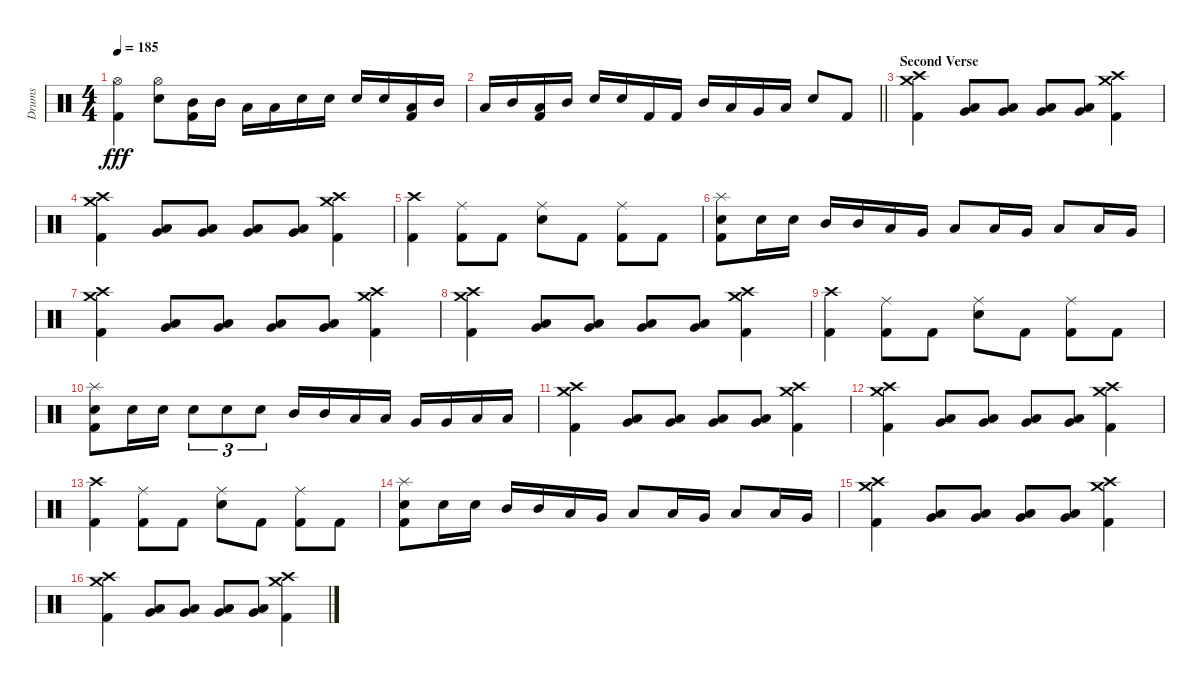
\track ("Drums" "Drums") {instrument percussion}
\staff {score}
\articulation defaults
\ts (4 4)
\tempo 185
\clef neutral
\ks c
("Hi-Hat (open)" "Kick (hit) 2").4{dy fff} ("Hi-Hat (open)" "Electric Snare (hit)").8 ("Mid Tom (hit)" "Kick (hit) 2").16 "Mid Tom (hit)".16 "Low Tom (hit)".16 "Low Tom (hit)".16 "Electric Snare (hit)".16 "Electric Snare (hit)".16 "Electric Snare (hit)".16 "Electric Snare (hit)".16 ("Low Tom (hit)" "Kick (hit) 2").16 "Mid Tom (hit)".16 |
\barLineRight lightlight "Low Tom (hit)".16 "Mid Tom (hit)".16
("Low Tom (hit)" "Kick (hit) 2").16 "Mid Tom (hit)".16 "Electric Snare (hit)".16 "Electric Snare (hit)".16 "Kick (hit) 2".16 "Kick (hit) 2".16 "Mid Tom (hit)".16 "Low Tom (hit)".16 "Very Low Tom (hit)".16 "Low Floor Tom (hit)".16 "Electric Snare (hit)".8 "Kick (hit) 2".8 |
\section ("" "Second Verse")
("Crash high (hit)" "Crash medium (hit)" "Kick (hit) 2").4 ("Very Low Tom (hit)" "Low Tom (hit)").8 ("Very Low Tom (hit)" "Low Floor Tom (hit)").8 ("Very Low Tom (hit)" "Low Floor Tom (hit)").8 ("Very Low Tom (hit)" "Low Floor Tom (hit)").8 ("Crash high (hit)" "Crash medium (hit)" "Kick (hit) 2").4 |
("Crash high (hit)" "Crash medium (hit)" "Kick (hit) 2").4 ("Very Low Tom (hit)" "Low Tom (hit)").8 ("Very Low Tom (hit)" "Low Floor Tom (hit)").8 ("Very Low Tom (hit)" "Low Floor Tom (hit)").8 ("Very Low Tom (hit)" "Low Floor Tom (hit)").8 ("Crash high (hit)" "Crash medium (hit)" "Kick (hit) 2").4 |
("Crash high (hit)" "Kick (hit) 2").4 ("Ride (middle)" "Kick (hit) 2").8 "Kick (hit) 2".8 ("Ride (middle)" "Electric Snare (hit)").8 "Kick (hit) 2".8 ("Ride (middle)" "Kick (hit) 2").8 "Kick (hit) 2".8 |
("Splash (hit)" "Electric Snare (hit)" "Kick (hit) 2").8 "Electric Snare (hit)".16 "Electric Snare (hit)".16 "Mid Tom (hit)".16 "Mid Tom (hit)".16 "Low Tom (hit)".16 "Very Low Tom (hit)".16 "Low Tom (hit)".8 "Low Tom (hit)".16 "Very Low Tom (hit)".16 "Low Floor Tom (hit)".8 "Low Floor Tom (hit)".16 "Very Low Tom (hit)".16 |
("Crash high (hit)" "Crash medium (hit)" "Kick (hit) 2").4 ("Very Low Tom (hit)" "Low Tom (hit)").8 ("Very Low Tom (hit)" "Low Floor Tom (hit)").8 ("Very Low Tom (hit)" "Low Floor Tom (hit)").8 ("Very Low Tom (hit)" "Low Floor Tom (hit)").8 ("Crash high (hit)" "Crash medium (hit)" "Kick (hit) 2").4 |
("Crash high (hit)" "Crash medium (hit)" "Kick (hit) 2").4 ("Very Low Tom (hit)" "Low Tom (hit)").8 ("Very Low Tom (hit)" "Low Floor Tom (hit)").8 ("Very Low Tom (hit)" "Low Floor Tom (hit)").8 ("Very Low Tom (hit)" "Low Floor Tom (hit)").8 ("Crash high (hit)" "Crash medium (hit)" "Kick (hit) 2").4 |
("Crash high (hit)" "Kick (hit) 2").4 ("Ride (middle)" "Kick (hit) 2").8 "Kick (hit) 2".8 ("Ride (middle)" "Electric Snare (hit)").8 "Kick (hit) 2".8 ("Ride (middle)" "Kick (hit) 2").8 "Kick (hit) 2".8 |
("Splash (hit)" "Electric Snare (hit)" "Kick (hit) 2").8 "Electric Snare (hit)".16 "Electric Snare (hit)".16 "Electric Snare (hit)".8{tu (3 2)} "Electric Snare (hit)".8{tu (3 2)} "Electric Snare (hit)".8{tu (3 2)} "Mid Tom (hit)".16 "Mid Tom (hit)".16 "Low Tom (hit)".16 "Low Tom (hit)".16 "Very Low Tom (hit)".16 "Very Low Tom (hit)".16 "Low Floor Tom (hit)".16 "Low Floor Tom (hit)".16 |
("Crash high (hit)" "Crash medium (hit)" "Kick (hit) 2").4 ("Very Low Tom (hit)" "Low Tom (hit)").8 ("Very Low Tom (hit)" "Low Floor Tom (hit)").8 ("Very Low Tom (hit)" "Low Floor Tom (hit)").8 ("Very Low Tom (hit)" "Low Floor Tom (hit)").8 ("Crash high (hit)" "Crash medium (hit)" "Kick (hit) 2").4 |
("Crash high (hit)" "Crash medium (hit)" "Kick (hit) 2").4 ("Very Low Tom (hit)" "Low Tom (hit)").8 ("Very Low Tom (hit)" "Low Floor Tom (hit)").8 ("Very Low Tom (hit)" "Low Floor Tom (hit)").8 ("Very Low Tom (hit)" "Low Floor Tom (hit)").8 ("Crash high (hit)" "Crash medium (hit)" "Kick (hit) 2").4 |
("Crash high (hit)" "Kick (hit) 2").4 ("Ride (middle)" "Kick (hit) 2").8 "Kick (hit) 2".8 ("Ride (middle)" "Electric Snare (hit)").8 "Kick (hit) 2".8 ("Ride (middle)" "Kick (hit) 2").8 "Kick (hit) 2".8 |
("Splash (hit)" "Electric Snare (hit)" "Kick (hit) 2").8 "Electric Snare (hit)".16 "Electric Snare (hit)".16 "Mid Tom (hit)".16 "Mid Tom (hit)".16 "Low Tom (hit)".16 "Very Low Tom (hit)".16 "Low Tom (hit)".8 "Low Tom (hit)".16 "Very Low Tom (hit)".16 "Low Floor Tom (hit)".8 "Low Floor Tom (hit)".16 "Very Low Tom (hit)".16 |
("Crash high (hit)" "Crash medium (hit)" "Kick (hit) 2").4 ("Very Low Tom (hit)" "Low Tom (hit)").8 ("Very Low Tom (hit)" "Low Floor Tom (hit)").8 ("Very Low Tom (hit)" "Low Floor Tom (hit)").8 ("Very Low Tom (hit)" "Low Floor Tom (hit)").8 ("Crash high (hit)" "Crash medium (hit)" "Kick (hit) 2").4 |
("Crash high (hit)" "Crash medium (hit)" "Kick (hit) 2").4 ("Very Low Tom (hit)" "Low Tom (hit)").8 ("Very Low Tom (hit)" "Low Floor Tom (hit)").8 ("Very Low Tom (hit)" "Low Floor Tom (hit)").8 ("Very Low Tom (hit)" "Low Floor Tom (hit)").8 ("Crash high (hit)" "Crash medium (hit)" "Kick (hit) 2").4
